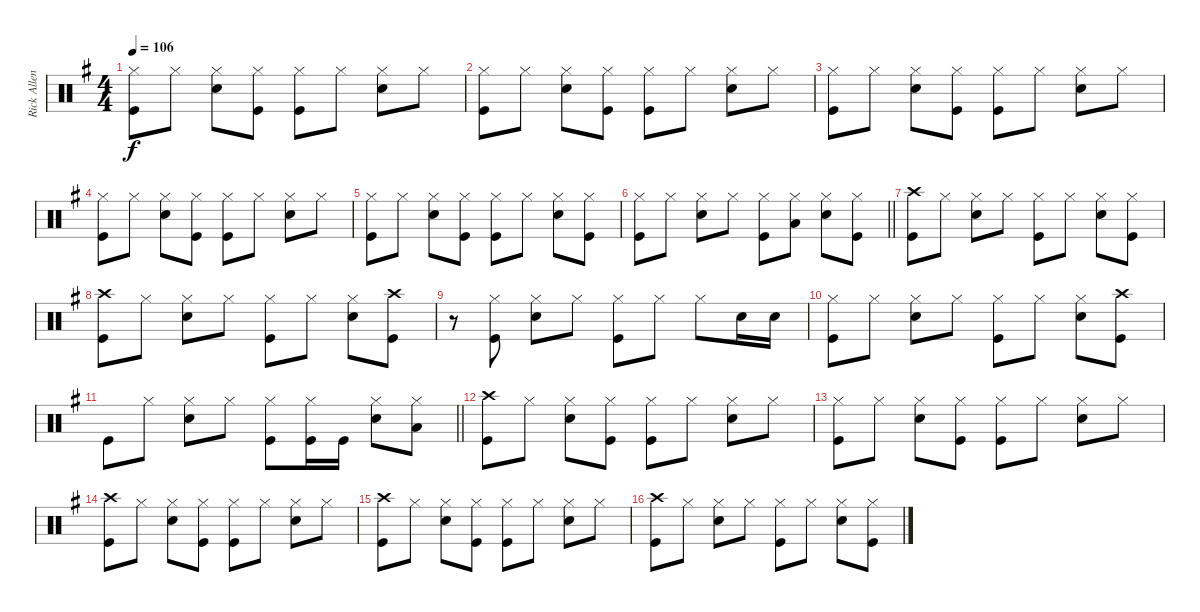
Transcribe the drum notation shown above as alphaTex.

\track ("Rick Allen \"Thundergood\"" "Rick Allen") {instrument percussion}
\staff {score}
\articulation defaults
\ts (4 4)
\tempo 106
\clef neutral
\ks eminor
("Hi-Hat (closed)" "Kick (hit)").8{dy f} "Hi-Hat (closed)".8 ("Hi-Hat (closed)" "Snare (hit) 2").8 ("Hi-Hat (closed)" "Kick (hit)").8 ("Hi-Hat (closed)" "Kick (hit)").8 "Hi-Hat (closed)".8 ("Hi-Hat (closed)" "Snare (hit) 2").8 "Hi-Hat (closed)".8 |
("Hi-Hat (closed)" "Kick (hit)").8 "Hi-Hat (closed)".8 ("Hi-Hat (closed)" "Snare (hit) 2").8 ("Hi-Hat (closed)" "Kick (hit)").8 ("Hi-Hat (closed)" "Kick (hit)").8 "Hi-Hat (closed)".8 ("Hi-Hat (closed)" "Snare (hit) 2").8 "Hi-Hat (closed)".8 |
("Hi-Hat (closed)" "Kick (hit)").8 "Hi-Hat (closed)".8 ("Hi-Hat (closed)" "Snare (hit) 2").8 ("Hi-Hat (closed)" "Kick (hit)").8 ("Hi-Hat (closed)" "Kick (hit)").8 "Hi-Hat (closed)".8 ("Hi-Hat (closed)" "Snare (hit) 2").8 "Hi-Hat (closed)".8 |
("Hi-Hat (closed)" "Kick (hit)").8 "Hi-Hat (closed)".8 ("Hi-Hat (closed)" "Snare (hit) 2").8 ("Hi-Hat (closed)" "Kick (hit)").8 ("Hi-Hat (closed)" "Kick (hit)").8 "Hi-Hat (closed)".8 ("Hi-Hat (closed)" "Snare (hit) 2").8 "Hi-Hat (closed)".8 |
("Hi-Hat (closed)" "Kick (hit)").8 "Hi-Hat (closed)".8 ("Hi-Hat (closed)" "Snare (hit) 2").8 ("Hi-Hat (closed)" "Kick (hit)").8 ("Hi-Hat (closed)" "Kick (hit)").8 "Hi-Hat (closed)".8 ("Hi-Hat (closed)" "Snare (hit) 2").8 ("Hi-Hat (closed)" "Kick (hit)").8 |
\barLineRight lightlight
("Hi-Hat (closed)" "Kick (hit)").8 "Hi-Hat (closed)".8 ("Hi-Hat (closed)" "Snare (hit) 2").8 "Hi-Hat (closed)".8 ("Hi-Hat (closed)" "Kick (hit)").8 ("Hi-Hat (closed)" "Low Tom (hit)").8 ("Hi-Hat (closed)" "Snare (hit) 2").8 ("Hi-Hat (closed)" "Kick (hit)").8 |
("Crash high (hit)" "Kick (hit)").8 "Hi-Hat (closed)".8 ("Hi-Hat (closed)" "Snare (hit) 2").8 "Hi-Hat (closed)".8 ("Hi-Hat (closed)" "Kick (hit)").8 "Hi-Hat (closed)".8 ("Hi-Hat (closed)" "Snare (hit) 2").8 ("Hi-Hat (closed)" "Kick (hit)").8 |
("Crash high (hit)" "Kick (hit)").8 "Hi-Hat (closed)".8 ("Hi-Hat (closed)" "Snare (hit) 2").8 "Hi-Hat (closed)".8 ("Hi-Hat (closed)" "Kick (hit)").8 "Hi-Hat (closed)".8 ("Hi-Hat (closed)" "Snare (hit) 2").8 ("Crash high (hit)" "Kick (hit)").8 |
r.8 ("Hi-Hat (closed)" "Kick (hit)").8 ("Hi-Hat (closed)" "Snare (hit) 2").8 "Hi-Hat (closed)".8 ("Hi-Hat (closed)" "Kick (hit)").8 "Hi-Hat (closed)".8 "Hi-Hat (closed)".8 "Snare (hit) 2".16 "Snare (hit) 2".16 |
("Hi-Hat (closed)" "Kick (hit)").8 "Hi-Hat (closed)".8 ("Hi-Hat (closed)" "Snare (hit) 2").8 "Hi-Hat (closed)".8 ("Hi-Hat (closed)" "Kick (hit)").8 "Hi-Hat (closed)".8 ("Hi-Hat (closed)" "Snare (hit) 2").8 ("Crash high (hit)" "Kick (hit)").8 |
\barLineRight lightlight "Kick (hit)".8 "Hi-Hat (closed)".8
("Hi-Hat (closed)" "Snare (hit) 2").8 "Hi-Hat (closed)".8 ("Hi-Hat (closed)" "Kick (hit)").8 ("Hi-Hat (closed)" "Kick (hit)").16 "Kick (hit)".16 ("Hi-Hat (closed)" "Snare (hit) 2").8 ("Hi-Hat (closed)" "Low Tom (hit)").8 |
("Crash high (hit)" "Kick (hit)").8 "Hi-Hat (closed)".8 ("Hi-Hat (closed)" "Snare (hit) 2").8 ("Hi-Hat (closed)" "Kick (hit)").8 ("Hi-Hat (closed)" "Kick (hit)").8 "Hi-Hat (closed)".8 ("Hi-Hat (closed)" "Snare (hit) 2").8 "Hi-Hat (closed)".8 |
("Hi-Hat (closed)" "Kick (hit)").8 "Hi-Hat (closed)".8 ("Hi-Hat (closed)" "Snare (hit) 2").8 ("Hi-Hat (closed)" "Kick (hit)").8 ("Hi-Hat (closed)" "Kick (hit)").8 "Hi-Hat (closed)".8 ("Hi-Hat (closed)" "Snare (hit) 2").8 "Hi-Hat (closed)".8 |
("Crash high (hit)" "Kick (hit)").8 "Hi-Hat (closed)".8 ("Hi-Hat (closed)" "Snare (hit) 2").8 ("Hi-Hat (closed)" "Kick (hit)").8 ("Hi-Hat (closed)" "Kick (hit)").8 "Hi-Hat (closed)".8 ("Hi-Hat (closed)" "Snare (hit) 2").8 "Hi-Hat (closed)".8 |
("Crash high (hit)" "Kick (hit)").8 "Hi-Hat (closed)".8 ("Hi-Hat (closed)" "Snare (hit) 2").8 ("Hi-Hat (closed)" "Kick (hit)").8 ("Hi-Hat (closed)" "Kick (hit)").8 "Hi-Hat (closed)".8 ("Hi-Hat (closed)" "Snare (hit) 2").8 "Hi-Hat (closed)".8 |
("Crash high (hit)" "Kick (hit)").8 "Hi-Hat (closed)".8 ("Hi-Hat (closed)" "Snare (hit) 2").8 "Hi-Hat (closed)".8 ("Hi-Hat (closed)" "Kick (hit)").8 "Hi-Hat (closed)".8 ("Hi-Hat (closed)" "Snare (hit) 2").8 ("Hi-Hat (closed)" "Kick (hit)").8
